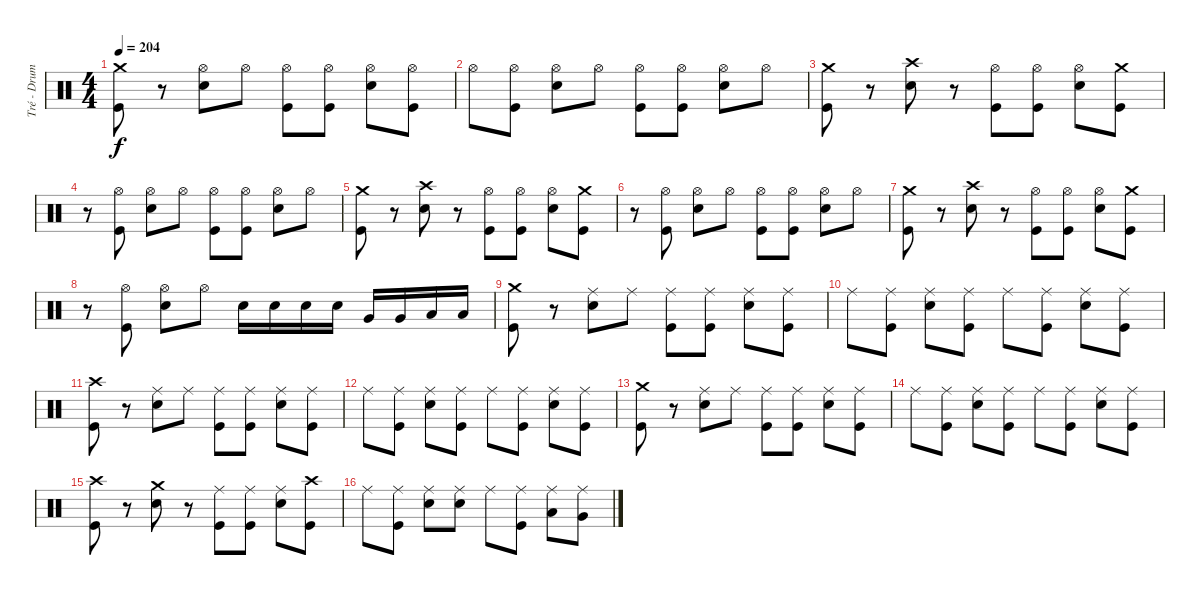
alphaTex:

\track ("Tré - Drums" "Tré - Drum") {instrument percussion}
\staff {score}
\articulation defaults
\ts (4 4)
\tempo 204
\clef neutral
\ks c
("Crash medium (hit)" "Kick (hit)").8{dy f} r.8 ("Hi-Hat (open)" "Electric Snare (hit)").8 "Hi-Hat (open)".8 ("Hi-Hat (open)" "Kick (hit)").8 ("Hi-Hat (open)" "Kick (hit)").8 ("Hi-Hat (open)" "Electric Snare (hit)").8 ("Hi-Hat (open)" "Kick (hit)").8 |
"Hi-Hat (open)".8 ("Hi-Hat (open)" "Kick (hit)").8 ("Hi-Hat (open)" "Electric Snare (hit)").8 "Hi-Hat (open)".8 ("Hi-Hat (open)" "Kick (hit)").8 ("Hi-Hat (open)" "Kick (hit)").8 ("Hi-Hat (open)" "Electric Snare (hit)").8 "Hi-Hat (open)".8 |
("Crash medium (hit)" "Kick (hit)").8 r.8 ("Crash high (hit)" "Electric Snare (hit)").8 r.8 ("Hi-Hat (open)" "Kick (hit)").8 ("Hi-Hat (open)" "Kick (hit)").8 ("Hi-Hat (open)" "Electric Snare (hit)").8 ("Crash medium (hit)" "Kick (hit)").8 |
r.8 ("Hi-Hat (open)" "Kick (hit)").8 ("Hi-Hat (open)" "Electric Snare (hit)").8 "Hi-Hat (open)".8 ("Hi-Hat (open)" "Kick (hit)").8 ("Hi-Hat (open)" "Kick (hit)").8 ("Hi-Hat (open)" "Electric Snare (hit)").8 "Hi-Hat (open)".8 |
("Crash medium (hit)" "Kick (hit)").8 r.8 ("Crash high (hit)" "Electric Snare (hit)").8 r.8 ("Hi-Hat (open)" "Kick (hit)").8 ("Hi-Hat (open)" "Kick (hit)").8 ("Hi-Hat (open)" "Electric Snare (hit)").8 ("Crash medium (hit)" "Kick (hit)").8 |
r.8 ("Hi-Hat (open)" "Kick (hit)").8 ("Hi-Hat (open)" "Electric Snare (hit)").8 "Hi-Hat (open)".8 ("Hi-Hat (open)" "Kick (hit)").8 ("Hi-Hat (open)" "Kick (hit)").8 ("Hi-Hat (open)" "Electric Snare (hit)").8 "Hi-Hat (open)".8 |
("Crash medium (hit)" "Kick (hit)").8 r.8 ("Crash high (hit)" "Electric Snare (hit)").8 r.8 ("Hi-Hat (open)" "Kick (hit)").8 ("Hi-Hat (open)" "Kick (hit)").8 ("Hi-Hat (open)" "Electric Snare (hit)").8 ("Crash medium (hit)" "Kick (hit)").8 |
r.8 ("Hi-Hat (open)" "Kick (hit)").8 ("Hi-Hat (open)" "Electric Snare (hit)").8 "Hi-Hat (open)".8 "Electric Snare (hit)".16 "Electric Snare (hit)".16 "Electric Snare (hit)".16 "Electric Snare (hit)".16 "Very Low Tom (hit)".16 "Very Low Tom (hit)".16 "Low Floor Tom (hit)".16 "Low Floor Tom (hit)".16 |
("Crash medium (hit)" "Kick (hit)").8 r.8 ("Ride (middle)" "Electric Snare (hit)").8 "Ride (middle)".8 ("Ride (middle)" "Kick (hit)").8 ("Ride (middle)" "Kick (hit)").8 ("Ride (middle)" "Electric Snare (hit)").8 ("Ride (middle)" "Kick (hit)").8 |
"Ride (middle)".8 ("Ride (middle)" "Kick (hit)").8 ("Ride (middle)" "Electric Snare (hit)").8 ("Ride (middle)" "Kick (hit)").8 "Ride (middle)".8 ("Ride (middle)" "Kick (hit)").8 ("Ride (middle)" "Electric Snare (hit)").8 ("Ride (middle)" "Kick (hit)").8 |
("Crash high (hit)" "Kick (hit)").8 r.8 ("Ride (middle)" "Electric Snare (hit)").8 "Ride (middle)".8 ("Ride (middle)" "Kick (hit)").8 ("Ride (middle)" "Kick (hit)").8 ("Ride (middle)" "Electric Snare (hit)").8 ("Ride (middle)" "Kick (hit)").8 |
"Ride (middle)".8 ("Ride (middle)" "Kick (hit)").8 ("Ride (middle)" "Electric Snare (hit)").8 ("Ride (middle)" "Kick (hit)").8 "Ride (middle)".8 ("Ride (middle)" "Kick (hit)").8 ("Ride (middle)" "Electric Snare (hit)").8 ("Ride (middle)" "Kick (hit)").8 |
("Crash medium (hit)" "Kick (hit)").8 r.8 ("Ride (middle)" "Electric Snare (hit)").8 "Ride (middle)".8 ("Ride (middle)" "Kick (hit)").8 ("Ride (middle)" "Kick (hit)").8 ("Ride (middle)" "Electric Snare (hit)").8 ("Ride (middle)" "Kick (hit)").8 |
"Ride (middle)".8 ("Ride (middle)" "Kick (hit)").8 ("Ride (middle)" "Electric Snare (hit)").8 ("Ride (middle)" "Kick (hit)").8 "Ride (middle)".8 ("Ride (middle)" "Kick (hit)").8 ("Ride (middle)" "Electric Snare (hit)").8 ("Ride (middle)" "Kick (hit)").8 |
("Crash high (hit)" "Kick (hit)").8 r.8 ("Crash medium (hit)" "Electric Snare (hit)").8 r.8 ("Ride (middle)" "Kick (hit)").8 ("Ride (middle)" "Kick (hit)").8 ("Ride (middle)" "Electric Snare (hit)").8 ("Crash high (hit)" "Kick (hit)").8 |
"Ride (middle)".8 ("Ride (middle)" "Kick (hit)").8 ("Ride (middle)" "Electric Snare (hit)").8 ("Ride (middle)" "Electric Snare (hit)").8 "Ride (middle)".8 ("Ride (middle)" "Kick (hit)").8 ("Ride (middle)" "Low Tom (hit)").8 ("Ride (middle)" "Very Low Tom (hit)").8
